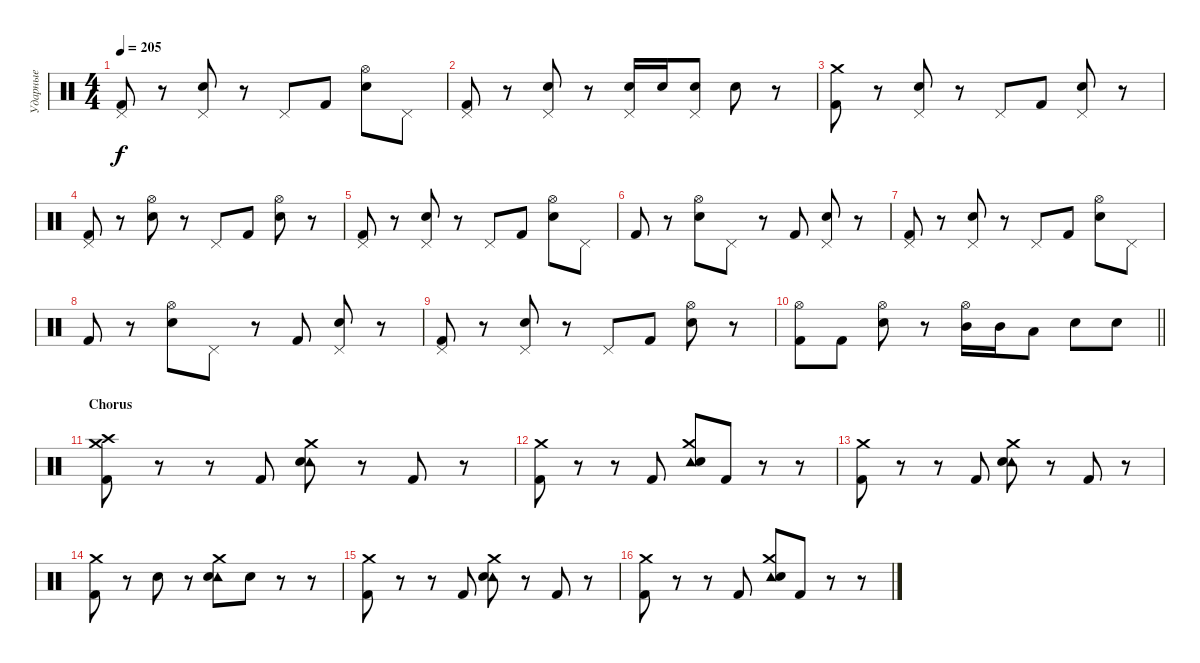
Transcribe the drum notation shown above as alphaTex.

\track ("Ударные" "Ударные") {instrument percussion}
\staff {score}
\articulation defaults
\ts (4 4)
\tempo 205
\clef neutral
\ks c
("Pedal Hi-Hat (hit)" "Kick (hit) 2").8{dy f} r.8 ("Pedal Hi-Hat (hit)" "Electric Snare (hit)").8 r.8 "Pedal Hi-Hat (hit)".8 "Kick (hit) 2".8 ("Hi-Hat (open)" "Electric Snare (hit)").8 "Pedal Hi-Hat (hit)".8 |
("Pedal Hi-Hat (hit)" "Kick (hit) 2").8 r.8 ("Pedal Hi-Hat (hit)" "Electric Snare (hit)").8 r.8 ("Pedal Hi-Hat (hit)" "Electric Snare (hit)").16 "Electric Snare (hit)".16 ("Pedal Hi-Hat (hit)" "Electric Snare (hit)").8 "Electric Snare (hit)".8 r.8 |
("Crash medium (hit)" "Kick (hit) 2").8 r.8 ("Pedal Hi-Hat (hit)" "Electric Snare (hit)").8 r.8 "Pedal Hi-Hat (hit)".8 "Kick (hit) 2".8 ("Pedal Hi-Hat (hit)" "Electric Snare (hit)").8 r.8 |
("Pedal Hi-Hat (hit)" "Kick (hit) 2").8 r.8 ("Hi-Hat (open)" "Electric Snare (hit)").8 r.8 "Pedal Hi-Hat (hit)".8 "Kick (hit) 2".8 ("Hi-Hat (open)" "Electric Snare (hit)").8 r.8 |
("Pedal Hi-Hat (hit)" "Kick (hit) 2").8 r.8 ("Pedal Hi-Hat (hit)" "Electric Snare (hit)").8 r.8 "Pedal Hi-Hat (hit)".8 "Kick (hit) 2".8 ("Hi-Hat (open)" "Electric Snare (hit)").8 "Pedal Hi-Hat (hit)".8 |
"Kick (hit) 2".8 r.8 ("Hi-Hat (open)" "Electric Snare (hit)").8 "Pedal Hi-Hat (hit)".8 r.8 "Kick (hit) 2".8 ("Pedal Hi-Hat (hit)" "Electric Snare (hit)").8 r.8 |
("Pedal Hi-Hat (hit)" "Kick (hit) 2").8 r.8 ("Pedal Hi-Hat (hit)" "Electric Snare (hit)").8 r.8 "Pedal Hi-Hat (hit)".8 "Kick (hit) 2".8 ("Hi-Hat (open)" "Electric Snare (hit)").8 "Pedal Hi-Hat (hit)".8 |
"Kick (hit) 2".8 r.8 ("Hi-Hat (open)" "Electric Snare (hit)").8 "Pedal Hi-Hat (hit)".8 r.8 "Kick (hit) 2".8 ("Pedal Hi-Hat (hit)" "Electric Snare (hit)").8 r.8 |
("Pedal Hi-Hat (hit)" "Kick (hit) 2").8 r.8 ("Pedal Hi-Hat (hit)" "Electric Snare (hit)").8 r.8 "Pedal Hi-Hat (hit)".8 "Kick (hit) 2".8 ("Hi-Hat (open)" "Electric Snare (hit)").8 r.8 |
\barLineRight lightlight
("Hi-Hat (open)" "Kick (hit) 2").8 "Kick (hit) 2".8 ("Hi-Hat (open)" "Electric Snare (hit)").8 r.8 ("Hi-Hat (open)" "Mid Tom (hit)").16 "Mid Tom (hit)".16 "Low Tom (hit)".8 "Electric Snare (hit)".8 "Electric Snare (hit)".8 |
\section ("" "Chorus")
("Crash high (hit)" "Crash medium (hit)" "Kick (hit) 2").8 r.8 r.8 "Kick (hit) 2".8 ("Crash medium (hit)" "Tambourine (hit)" "Electric Snare (hit)").8 r.8 "Kick (hit) 2".8 r.8 |
("Crash medium (hit)" "Kick (hit) 2").8 r.8 r.8 "Kick (hit) 2".8 ("Crash medium (hit)" "Tambourine (hit)" "Electric Snare (hit)").8 "Kick (hit) 2".8 r.8 r.8 |
("Crash medium (hit)" "Kick (hit) 2").8 r.8 r.8 "Kick (hit) 2".8 ("Crash medium (hit)" "Tambourine (hit)" "Electric Snare (hit)").8 r.8 "Kick (hit) 2".8 r.8 |
("Crash medium (hit)" "Kick (hit) 2").8 r.8 "Electric Snare (hit)".8 r.8 ("Crash medium (hit)" "Tambourine (hit)" "Electric Snare (hit)").8 "Electric Snare (hit)".8 r.8 r.8 |
("Crash medium (hit)" "Kick (hit) 2").8 r.8 r.8 "Kick (hit) 2".8 ("Crash medium (hit)" "Tambourine (hit)" "Electric Snare (hit)").8 r.8 "Kick (hit) 2".8 r.8 |
("Crash medium (hit)" "Kick (hit) 2").8 r.8 r.8 "Kick (hit) 2".8 ("Crash medium (hit)" "Tambourine (hit)" "Electric Snare (hit)").8 "Kick (hit) 2".8 r.8 r.8
